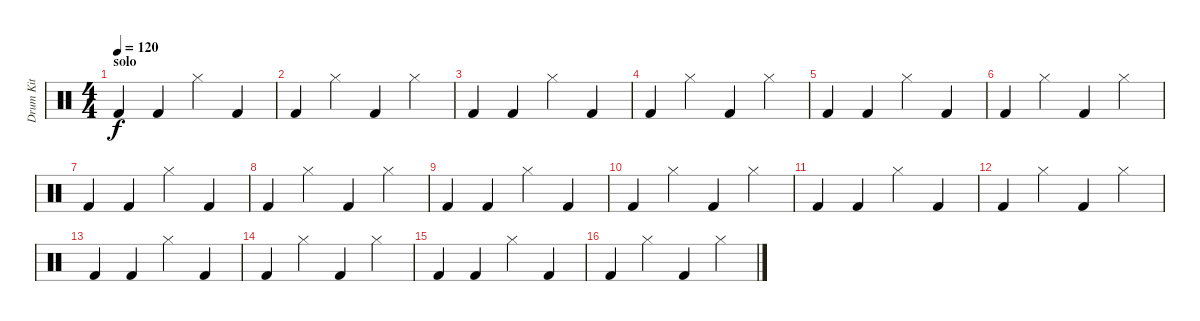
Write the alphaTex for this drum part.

\track ("Drum Kit" "Drum Kit") {instrument percussion}
\staff {score}
\articulation defaults
\ts (4 4)
\section ("" "solo")
\tempo 120
\clef neutral
\ks c "Kick (hit) 2".4{dy f} "Kick (hit) 2".4 "Hi-Hat (closed)".4 "Kick (hit) 2".4
|
"Kick (hit) 2".4 "Hi-Hat (closed)".4 "Kick (hit) 2".4 "Hi-Hat (closed)".4 |
"Kick (hit) 2".4 "Kick (hit) 2".4 "Hi-Hat (closed)".4 "Kick (hit) 2".4 |
"Kick (hit) 2".4 "Hi-Hat (closed)".4 "Kick (hit) 2".4 "Hi-Hat (closed)".4 |
"Kick (hit) 2".4 "Kick (hit) 2".4 "Hi-Hat (closed)".4 "Kick (hit) 2".4 |
"Kick (hit) 2".4 "Hi-Hat (closed)".4 "Kick (hit) 2".4 "Hi-Hat (closed)".4 |
"Kick (hit) 2".4 "Kick (hit) 2".4 "Hi-Hat (closed)".4 "Kick (hit) 2".4 |
"Kick (hit) 2".4 "Hi-Hat (closed)".4 "Kick (hit) 2".4 "Hi-Hat (closed)".4 |
"Kick (hit) 2".4 "Kick (hit) 2".4 "Hi-Hat (closed)".4 "Kick (hit) 2".4 |
"Kick (hit) 2".4 "Hi-Hat (closed)".4 "Kick (hit) 2".4 "Hi-Hat (closed)".4 |
"Kick (hit) 2".4 "Kick (hit) 2".4 "Hi-Hat (closed)".4 "Kick (hit) 2".4 |
"Kick (hit) 2".4 "Hi-Hat (closed)".4 "Kick (hit) 2".4 "Hi-Hat (closed)".4 |
"Kick (hit) 2".4 "Kick (hit) 2".4 "Hi-Hat (closed)".4 "Kick (hit) 2".4 |
"Kick (hit) 2".4 "Hi-Hat (closed)".4 "Kick (hit) 2".4 "Hi-Hat (closed)".4 |
"Kick (hit) 2".4 "Kick (hit) 2".4 "Hi-Hat (closed)".4 "Kick (hit) 2".4 |
"Kick (hit) 2".4 "Hi-Hat (closed)".4 "Kick (hit) 2".4 "Hi-Hat (closed)".4
